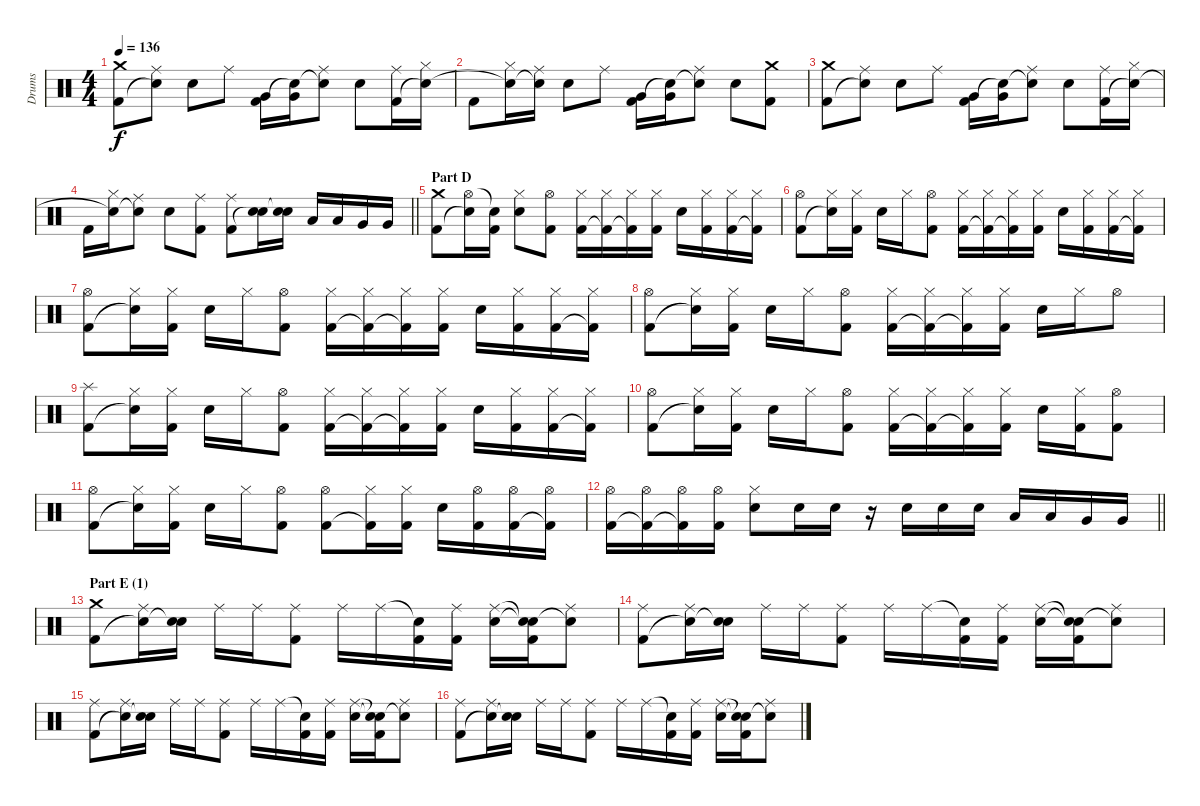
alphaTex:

\track ("Drums" "Drums") {instrument percussion}
\staff {score}
\articulation defaults
\ts (4 4)
\tempo 136
\clef neutral
\ks c
("Crash medium (hit)" "Kick (hit) 2").8{dy f} ("Ride (middle)" "Snare (hit)"{t}).8 "Electric Snare (hit)".8 "Ride (middle)".8 ("Very Low Tom (hit)" "Kick (hit) 2").16 ("Very Low Tom (hit)" "Snare (hit)"{t}).16 ("Ride (middle)" "Snare (hit)"{t}).8 "Electric Snare (hit)".8 ("Ride (middle)" "Kick (hit) 2").16 ("Hi-Hat (closed)" "Snare (hit)"{t}).16 |
"Kick (hit) 2".8 ("Hi-Hat (closed)" "Snare (hit)"{t}).16 ("Ride (middle)" "Snare (hit)"{t}).16 "Electric Snare (hit)".8 "Ride (middle)".8 ("Very Low Tom (hit)" "Kick (hit) 2").16 ("Very Low Tom (hit)" "Snare (hit)"{t}).16 ("Ride (middle)" "Snare (hit)"{t}).8 "Electric Snare (hit)".8 ("Crash medium (hit)" "Kick (hit) 2").8 |
("Crash medium (hit)" "Kick (hit) 2").8 ("Ride (middle)" "Snare (hit)"{t}).8 "Electric Snare (hit)".8 "Ride (middle)".8 ("Very Low Tom (hit)" "Kick (hit) 2").16 ("Very Low Tom (hit)" "Snare (hit)"{t}).16 ("Ride (middle)" "Snare (hit)"{t}).8 "Electric Snare (hit)".8 ("Ride (middle)" "Kick (hit) 2").16 ("Hi-Hat (closed)" "Snare (hit)"{t}).16 |
\barLineRight lightlight "Kick (hit) 2".16
("Hi-Hat (closed)" "Snare (hit)"{t}).16 ("Ride (middle)" "Snare (hit)"{t}).8 "Electric Snare (hit)".8 ("Ride (middle)" "Kick (hit) 2").8 ("Ride (middle)" "Kick (hit) 2").8 ("Electric Snare (hit)" "Snare (hit)"{t}).16 ("Electric Snare (hit)" "Snare (hit)"{t}).16 "Low Tom (hit)".16 "Low Tom (hit)".16 "Very Low Tom (hit)".16 "Very Low Tom (hit)".16 |
\section ("" "Part D")
("Crash medium (hit)" "Kick (hit) 2").8 ("Hi-Hat (open)" "Snare (hit)"{t}).16 ("Snare (hit)"{t} "Kick (hit) 2").16 ("Hi-Hat (closed)" "Electric Snare (hit)").8 ("Hi-Hat (open)" "Kick (hit) 2").8 ("Hi-Hat (closed)" "Kick (hit) 2").16 ("Hi-Hat (closed)" "Kick (hit) 2"{t}).16 ("Hi-Hat (closed)" "Kick (hit) 2"{t}).16 ("Hi-Hat (closed)" "Kick (hit) 2").16 "Electric Snare (hit)".16 ("Hi-Hat (closed)" "Kick (hit) 2").16 ("Hi-Hat (closed)" "Kick (hit) 2").16 ("Hi-Hat (closed)" "Kick (hit) 2"{t}).16 |
("Hi-Hat (open)" "Kick (hit) 2").8 ("Hi-Hat (closed)" "Snare (hit)"{t}).16 ("Hi-Hat (closed)" "Kick (hit) 2").16 "Electric Snare (hit)".16 "Hi-Hat (closed)".16 ("Hi-Hat (open)" "Kick (hit) 2").8 ("Hi-Hat (closed)" "Kick (hit) 2").16 ("Hi-Hat (closed)" "Kick (hit) 2"{t}).16 ("Hi-Hat (closed)" "Kick (hit) 2"{t}).16 ("Hi-Hat (closed)" "Kick (hit) 2").16 "Electric Snare (hit)".16 ("Hi-Hat (closed)" "Kick (hit) 2").16 ("Hi-Hat (closed)" "Kick (hit) 2").16 ("Hi-Hat (closed)" "Kick (hit) 2"{t}).16 |
("Hi-Hat (open)" "Kick (hit) 2").8 ("Hi-Hat (closed)" "Snare (hit)"{t}).16 ("Hi-Hat (closed)" "Kick (hit) 2").16 "Electric Snare (hit)".16 "Hi-Hat (closed)".16 ("Hi-Hat (open)" "Kick (hit) 2").8 ("Hi-Hat (closed)" "Kick (hit) 2").16 ("Hi-Hat (closed)" "Kick (hit) 2"{t}).16 ("Hi-Hat (closed)" "Kick (hit) 2"{t}).16 ("Hi-Hat (closed)" "Kick (hit) 2").16 "Electric Snare (hit)".16 ("Hi-Hat (closed)" "Kick (hit) 2").16 ("Hi-Hat (closed)" "Kick (hit) 2").16 ("Hi-Hat (closed)" "Kick (hit) 2"{t}).16 |
("Hi-Hat (open)" "Kick (hit) 2").8 ("Hi-Hat (closed)" "Snare (hit)"{t}).16 ("Hi-Hat (closed)" "Kick (hit) 2").16 "Electric Snare (hit)".16 "Hi-Hat (closed)".16 ("Hi-Hat (open)" "Kick (hit) 2").8 ("Hi-Hat (closed)" "Kick (hit) 2").16 ("Hi-Hat (closed)" "Kick (hit) 2"{t}).16 ("Hi-Hat (closed)" "Kick (hit) 2"{t}).16 ("Hi-Hat (closed)" "Kick (hit) 2").16 "Electric Snare (hit)".16 "Hi-Hat (closed)".16 "Hi-Hat (open)".8 |
("Splash (hit)" "Kick (hit) 2").8 ("Hi-Hat (closed)" "Snare (hit)"{t}).16 ("Hi-Hat (closed)" "Kick (hit) 2").16 "Electric Snare (hit)".16 "Hi-Hat (closed)".16 ("Hi-Hat (open)" "Kick (hit) 2").8 ("Hi-Hat (closed)" "Kick (hit) 2").16 ("Hi-Hat (closed)" "Kick (hit) 2"{t}).16 ("Hi-Hat (closed)" "Kick (hit) 2"{t}).16 ("Hi-Hat (closed)" "Kick (hit) 2").16 "Electric Snare (hit)".16 ("Hi-Hat (closed)" "Kick (hit) 2").16 ("Hi-Hat (closed)" "Kick (hit) 2").16 ("Hi-Hat (closed)" "Kick (hit) 2"{t}).16 |
("Hi-Hat (open)" "Kick (hit) 2").8 ("Hi-Hat (closed)" "Snare (hit)"{t}).16 ("Hi-Hat (closed)" "Kick (hit) 2").16 "Electric Snare (hit)".16 "Hi-Hat (closed)".16 ("Hi-Hat (open)" "Kick (hit) 2").8 ("Hi-Hat (closed)" "Kick (hit) 2").16 ("Hi-Hat (closed)" "Kick (hit) 2"{t}).16 ("Hi-Hat (closed)" "Kick (hit) 2"{t}).16 ("Hi-Hat (closed)" "Kick (hit) 2").16 "Electric Snare (hit)".16 ("Hi-Hat (closed)" "Kick (hit) 2").16 ("Hi-Hat (open)" "Kick (hit) 2").8 |
("Hi-Hat (open)" "Kick (hit) 2").8 ("Hi-Hat (closed)" "Snare (hit)"{t}).16 ("Hi-Hat (closed)" "Kick (hit) 2").16 "Electric Snare (hit)".16 "Hi-Hat (closed)".16 ("Hi-Hat (open)" "Kick (hit) 2").8 ("Hi-Hat (open)" "Kick (hit) 2").8 ("Hi-Hat (closed)" "Kick (hit) 2"{t}).16 ("Hi-Hat (closed)" "Kick (hit) 2").16 "Electric Snare (hit)".16 ("Hi-Hat (open)" "Kick (hit) 2").16 ("Hi-Hat (open)" "Kick (hit) 2").16 ("Hi-Hat (open)" "Kick (hit) 2"{t}).16 |
\barLineRight lightlight
("Hi-Hat (open)" "Kick (hit) 2").16 ("Hi-Hat (open)" "Kick (hit) 2"{t}).16 ("Hi-Hat (open)" "Kick (hit) 2"{t}).16 ("Hi-Hat (open)" "Kick (hit) 2").16 ("Hi-Hat (closed)" "Electric Snare (hit)").8 "Electric Snare (hit)".16 "Electric Snare (hit)".16 r.16 "Electric Snare (hit)".16 "Electric Snare (hit)".16 "Electric Snare (hit)".16 "Low Tom (hit)".16 "Low Tom (hit)".16 "Very Low Tom (hit)".16 "Very Low Tom (hit)".16 |
\section ("" "Part E (1)")
("Crash medium (hit)" "Kick (hit) 2").8 ("Ride (middle)" "Snare (hit)"{t}).16 ("Electric Snare (hit)" "Snare (hit)"{t}).16 "Ride (middle)".16 "Ride (middle)".16 ("Ride (middle)" "Kick (hit) 2").8 "Ride (middle)".16 "Ride (middle)".16 ("Snare (hit)"{t} "Kick (hit) 2").16 ("Ride (middle)" "Kick (hit) 2").16 ("Ride (middle)" "Electric Snare (hit)").16 ("Snare (hit)"{t} "Snare (hit)"{t} "Kick (hit) 2").16 ("Ride (middle)" "Snare (hit)"{t}).8 |
("Ride (middle)" "Kick (hit) 2").8 ("Ride (middle)" "Snare (hit)"{t}).16 ("Electric Snare (hit)" "Snare (hit)"{t}).16 "Ride (middle)".16 "Ride (middle)".16 ("Ride (middle)" "Kick (hit) 2").8 "Ride (middle)".16 "Ride (middle)".16 ("Snare (hit)"{t} "Kick (hit) 2").16 ("Ride (middle)" "Kick (hit) 2").16 ("Ride (middle)" "Electric Snare (hit)").16 ("Snare (hit)"{t} "Snare (hit)"{t} "Kick (hit) 2").16 ("Ride (middle)" "Snare (hit)"{t}).8 |
("Ride (middle)" "Kick (hit) 2").8 ("Ride (middle)" "Snare (hit)"{t}).16 ("Electric Snare (hit)" "Snare (hit)"{t}).16 "Ride (middle)".16 "Ride (middle)".16 ("Ride (middle)" "Kick (hit) 2").8 "Ride (middle)".16 "Ride (middle)".16 ("Snare (hit)"{t} "Kick (hit) 2").16 ("Ride (middle)" "Kick (hit) 2").16 ("Ride (middle)" "Electric Snare (hit)").16 ("Snare (hit)"{t} "Snare (hit)"{t} "Kick (hit) 2").16 ("Ride (middle)" "Snare (hit)"{t}).8 |
("Ride (middle)" "Kick (hit) 2").8 ("Ride (middle)" "Snare (hit)"{t}).16 ("Electric Snare (hit)" "Snare (hit)"{t}).16 "Ride (middle)".16 "Ride (middle)".16 ("Ride (middle)" "Kick (hit) 2").8 "Ride (middle)".16 "Ride (middle)".16 ("Snare (hit)"{t} "Kick (hit) 2").16 ("Ride (middle)" "Kick (hit) 2").16 ("Ride (middle)" "Electric Snare (hit)").16 ("Snare (hit)"{t} "Snare (hit)"{t} "Kick (hit) 2").16 ("Ride (middle)" "Snare (hit)"{t}).8
